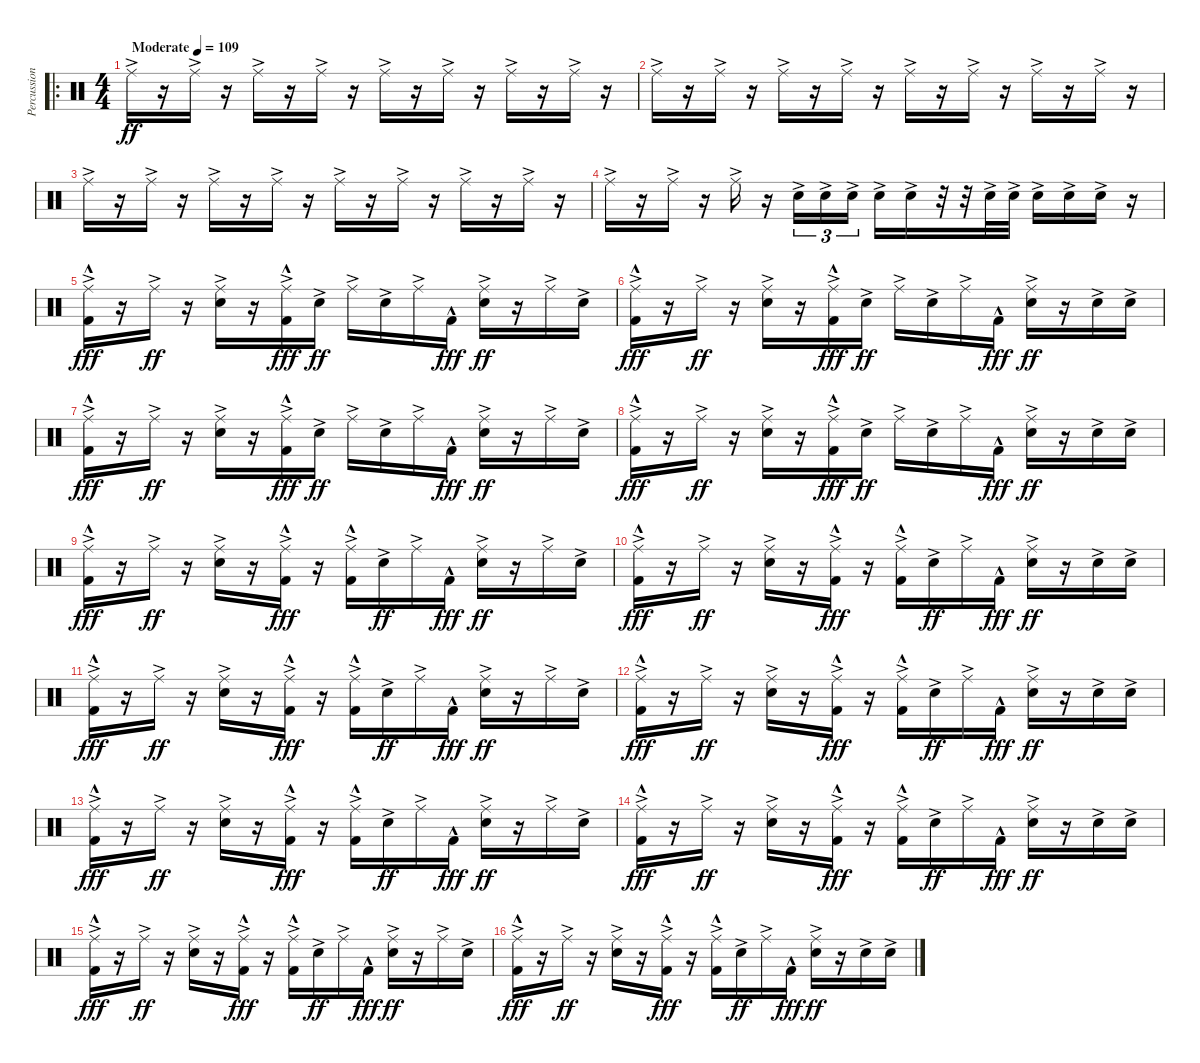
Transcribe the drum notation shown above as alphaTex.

\track ("Percussion" "Percussion") {instrument percussion}
\staff {score}
\articulation defaults
\ro
\ts (4 4)
\tempo (109 "Moderate")
\clef neutral
\ks c "Ride (middle)"{ac}.16{dy ff}
r.16 "Ride (middle)"{ac}.16 r.16 "Ride (middle)"{ac}.16 r.16 "Ride (middle)"{ac}.16 r.16 "Ride (middle)"{ac}.16 r.16 "Ride (middle)"{ac}.16 r.16 "Ride (middle)"{ac}.16 r.16 "Ride (middle)"{ac}.16 r.16 |
"Ride (middle)"{ac}.16 r.16 "Ride (middle)"{ac}.16 r.16 "Ride (middle)"{ac}.16 r.16 "Ride (middle)"{ac}.16 r.16 "Ride (middle)"{ac}.16 r.16 "Ride (middle)"{ac}.16 r.16 "Ride (middle)"{ac}.16 r.16 "Ride (middle)"{ac}.16 r.16 |
"Ride (middle)"{ac}.16 r.16 "Ride (middle)"{ac}.16 r.16 "Ride (middle)"{ac}.16 r.16 "Ride (middle)"{ac}.16 r.16 "Ride (middle)"{ac}.16 r.16 "Ride (middle)"{ac}.16 r.16 "Ride (middle)"{ac}.16 r.16 "Ride (middle)"{ac}.16 r.16 |
"Ride (middle)"{ac}.16 r.16 "Ride (middle)"{ac}.16 r.16 "Ride (middle)"{ac}.16 r.16 "Snare (hit) 2"{ac}.16{tu (3 2)} "Snare (hit) 2"{ac}.16{tu (3 2)} "Snare (hit) 2"{ac}.16{tu (3 2)} "Snare (hit) 2"{ac}.16 "Snare (hit) 2"{ac}.16 r.32 r.32 "Snare (hit) 2"{ac}.32 "Snare (hit) 2"{ac}.32 "Snare (hit) 2"{ac}.16 "Snare (hit) 2"{ac}.16 "Snare (hit) 2"{ac}.16 r.16 |
("Ride (middle)"{ac} "Kick (hit) 2"{hac}).16{dy fff} r.16 "Ride (middle)"{ac}.16{dy ff} r.16 ("Ride (middle)"{ac} "Snare (hit) 2"{ac}).16 r.16 ("Ride (middle)"{ac} "Kick (hit) 2"{hac}).16{dy fff} "Snare (hit) 2"{ac}.16{dy ff} "Ride (middle)"{ac}.16 "Snare (hit) 2"{ac}.16 "Ride (middle)"{ac}.16 "Kick (hit) 2"{hac}.16{dy fff} ("Ride (middle)"{ac} "Snare (hit) 2"{ac}).16{dy ff} r.16 "Ride (middle)"{ac}.16 "Snare (hit) 2"{ac}.16 |
("Ride (middle)"{ac} "Kick (hit) 2"{hac}).16{dy fff} r.16 "Ride (middle)"{ac}.16{dy ff} r.16 ("Ride (middle)"{ac} "Snare (hit) 2"{ac}).16 r.16 ("Ride (middle)"{ac} "Kick (hit) 2"{hac}).16{dy fff} "Snare (hit) 2"{ac}.16{dy ff} "Ride (middle)"{ac}.16 "Snare (hit) 2"{ac}.16 "Ride (middle)"{ac}.16 "Kick (hit) 2"{hac}.16{dy fff} ("Ride (middle)"{ac} "Snare (hit) 2"{ac}).16{dy ff} r.16 "Snare (hit) 2"{ac}.16 "Snare (hit) 2"{ac}.16 |
("Ride (middle)"{ac} "Kick (hit) 2"{hac}).16{dy fff} r.16 "Ride (middle)"{ac}.16{dy ff} r.16 ("Ride (middle)"{ac} "Snare (hit) 2"{ac}).16 r.16 ("Ride (middle)"{ac} "Kick (hit) 2"{hac}).16{dy fff} "Snare (hit) 2"{ac}.16{dy ff} "Ride (middle)"{ac}.16 "Snare (hit) 2"{ac}.16 "Ride (middle)"{ac}.16 "Kick (hit) 2"{hac}.16{dy fff} ("Ride (middle)"{ac} "Snare (hit) 2"{ac}).16{dy ff} r.16 "Ride (middle)"{ac}.16 "Snare (hit) 2"{ac}.16 |
("Ride (middle)"{ac} "Kick (hit) 2"{hac}).16{dy fff} r.16 "Ride (middle)"{ac}.16{dy ff} r.16 ("Ride (middle)"{ac} "Snare (hit) 2"{ac}).16 r.16 ("Ride (middle)"{ac} "Kick (hit) 2"{hac}).16{dy fff} "Snare (hit) 2"{ac}.16{dy ff} "Ride (middle)"{ac}.16 "Snare (hit) 2"{ac}.16 "Ride (middle)"{ac}.16 "Kick (hit) 2"{hac}.16{dy fff} ("Ride (middle)"{ac} "Snare (hit) 2"{ac}).16{dy ff} r.16 "Snare (hit) 2"{ac}.16 "Snare (hit) 2"{ac}.16 |
("Ride (middle)"{ac} "Kick (hit) 2"{hac}).16{dy fff} r.16 "Ride (middle)"{ac}.16{dy ff} r.16 ("Ride (middle)"{ac} "Snare (hit) 2"{ac}).16 r.16 ("Ride (middle)"{ac} "Kick (hit) 2"{hac}).16{dy fff} r.16 ("Ride (middle)"{ac} "Kick (hit) 2"{hac}).16 "Snare (hit) 2"{ac}.16{dy ff} "Ride (middle)"{ac}.16 "Kick (hit) 2"{hac}.16{dy fff} ("Ride (middle)"{ac} "Snare (hit) 2"{ac}).16{dy ff} r.16 "Ride (middle)"{ac}.16 "Snare (hit) 2"{ac}.16 |
("Ride (middle)"{ac} "Kick (hit) 2"{hac}).16{dy fff} r.16 "Ride (middle)"{ac}.16{dy ff} r.16 ("Ride (middle)"{ac} "Snare (hit) 2"{ac}).16 r.16 ("Ride (middle)"{ac} "Kick (hit) 2"{hac}).16{dy fff} r.16 ("Ride (middle)"{ac} "Kick (hit) 2"{hac}).16 "Snare (hit) 2"{ac}.16{dy ff} "Ride (middle)"{ac}.16 "Kick (hit) 2"{hac}.16{dy fff} ("Ride (middle)"{ac} "Snare (hit) 2"{ac}).16{dy ff} r.16 "Snare (hit) 2"{ac}.16 "Snare (hit) 2"{ac}.16 |
("Ride (middle)"{ac} "Kick (hit) 2"{hac}).16{dy fff} r.16 "Ride (middle)"{ac}.16{dy ff} r.16 ("Ride (middle)"{ac} "Snare (hit) 2"{ac}).16 r.16 ("Ride (middle)"{ac} "Kick (hit) 2"{hac}).16{dy fff} r.16 ("Ride (middle)"{ac} "Kick (hit) 2"{hac}).16 "Snare (hit) 2"{ac}.16{dy ff} "Ride (middle)"{ac}.16 "Kick (hit) 2"{hac}.16{dy fff} ("Ride (middle)"{ac} "Snare (hit) 2"{ac}).16{dy ff} r.16 "Ride (middle)"{ac}.16 "Snare (hit) 2"{ac}.16 |
("Ride (middle)"{ac} "Kick (hit) 2"{hac}).16{dy fff} r.16 "Ride (middle)"{ac}.16{dy ff} r.16 ("Ride (middle)"{ac} "Snare (hit) 2"{ac}).16 r.16 ("Ride (middle)"{ac} "Kick (hit) 2"{hac}).16{dy fff} r.16 ("Ride (middle)"{ac} "Kick (hit) 2"{hac}).16 "Snare (hit) 2"{ac}.16{dy ff} "Ride (middle)"{ac}.16 "Kick (hit) 2"{hac}.16{dy fff} ("Ride (middle)"{ac} "Snare (hit) 2"{ac}).16{dy ff} r.16 "Snare (hit) 2"{ac}.16 "Snare (hit) 2"{ac}.16 |
("Ride (middle)"{ac} "Kick (hit) 2"{hac}).16{dy fff} r.16 "Ride (middle)"{ac}.16{dy ff} r.16 ("Ride (middle)"{ac} "Snare (hit) 2"{ac}).16 r.16 ("Ride (middle)"{ac} "Kick (hit) 2"{hac}).16{dy fff} r.16 ("Ride (middle)"{ac} "Kick (hit) 2"{hac}).16 "Snare (hit) 2"{ac}.16{dy ff} "Ride (middle)"{ac}.16 "Kick (hit) 2"{hac}.16{dy fff} ("Ride (middle)"{ac} "Snare (hit) 2"{ac}).16{dy ff} r.16 "Ride (middle)"{ac}.16 "Snare (hit) 2"{ac}.16 |
("Ride (middle)"{ac} "Kick (hit) 2"{hac}).16{dy fff} r.16 "Ride (middle)"{ac}.16{dy ff} r.16 ("Ride (middle)"{ac} "Snare (hit) 2"{ac}).16 r.16 ("Ride (middle)"{ac} "Kick (hit) 2"{hac}).16{dy fff} r.16 ("Ride (middle)"{ac} "Kick (hit) 2"{hac}).16 "Snare (hit) 2"{ac}.16{dy ff} "Ride (middle)"{ac}.16 "Kick (hit) 2"{hac}.16{dy fff} ("Ride (middle)"{ac} "Snare (hit) 2"{ac}).16{dy ff} r.16 "Snare (hit) 2"{ac}.16 "Snare (hit) 2"{ac}.16 |
("Ride (middle)"{ac} "Kick (hit) 2"{hac}).16{dy fff} r.16 "Ride (middle)"{ac}.16{dy ff} r.16 ("Ride (middle)"{ac} "Snare (hit) 2"{ac}).16 r.16 ("Ride (middle)"{ac} "Kick (hit) 2"{hac}).16{dy fff} r.16 ("Ride (middle)"{ac} "Kick (hit) 2"{hac}).16 "Snare (hit) 2"{ac}.16{dy ff} "Ride (middle)"{ac}.16 "Kick (hit) 2"{hac}.16{dy fff} ("Ride (middle)"{ac} "Snare (hit) 2"{ac}).16{dy ff} r.16 "Ride (middle)"{ac}.16 "Snare (hit) 2"{ac}.16 |
("Ride (middle)"{ac} "Kick (hit) 2"{hac}).16{dy fff} r.16 "Ride (middle)"{ac}.16{dy ff} r.16 ("Ride (middle)"{ac} "Snare (hit) 2"{ac}).16 r.16 ("Ride (middle)"{ac} "Kick (hit) 2"{hac}).16{dy fff} r.16 ("Ride (middle)"{ac} "Kick (hit) 2"{hac}).16 "Snare (hit) 2"{ac}.16{dy ff} "Ride (middle)"{ac}.16 "Kick (hit) 2"{hac}.16{dy fff} ("Ride (middle)"{ac} "Snare (hit) 2"{ac}).16{dy ff} r.16 "Snare (hit) 2"{ac}.16 "Snare (hit) 2"{ac}.16
